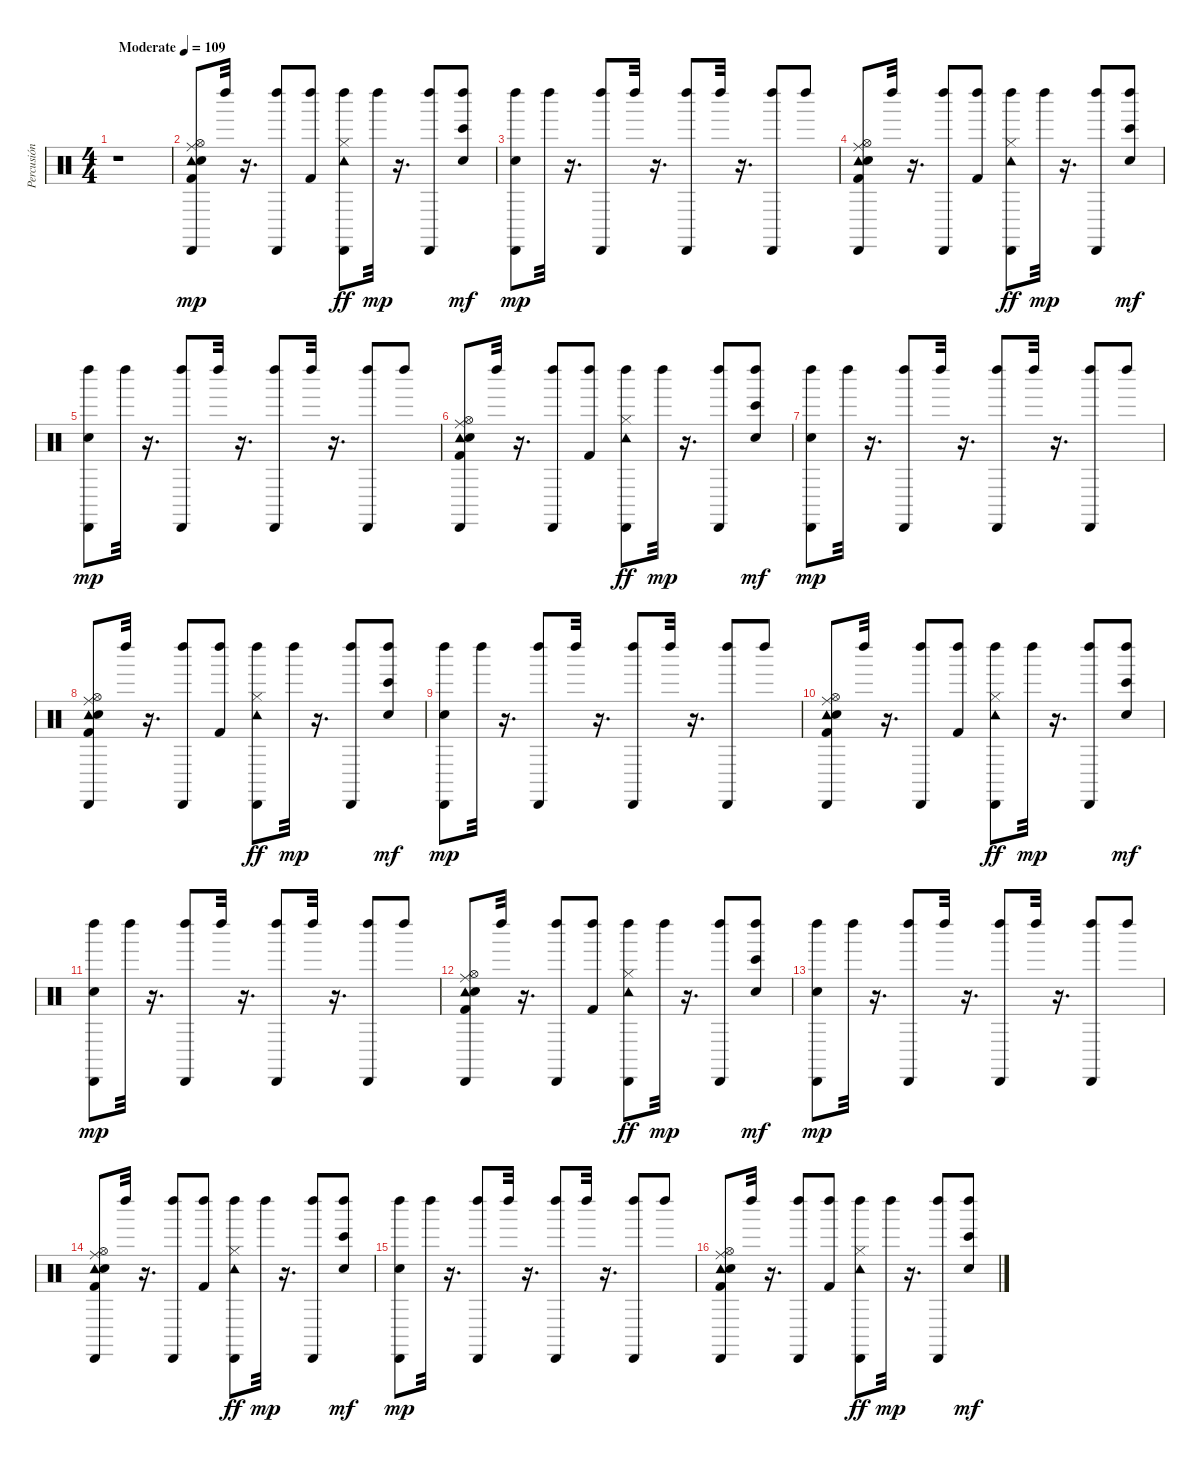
\track ("Percusión" "Percusión") {instrument percussion}
\staff {score}
\articulation defaults
\ts (4 4)
\tempo (109 "Moderate")
\clef neutral
\ks c
r.1{dy mp} |
("Ride (middle)" "Kick (hit) 2" "Hi-Hat (open)" "Tambourine (hit)" "Snare (hit)" "Cabasa (hit)").8 "Left Maraca (hit)".32 r.16{d} ("Cabasa (hit)" "Left Maraca (hit)").8 ("Kick (hit) 2" "Left Maraca (hit)").8 ("Left Maraca (hit)" "Cabasa (hit)" "Hi-Hat (closed)" "Tambourine (hit)").8{dy ff} "Left Maraca (hit)".32{dy mp} r.16{d} ("Cabasa (hit)" "Left Maraca (hit)").8 ("Left Maraca (hit)" "Snare (hit)" "Bongo High (hit)").8{dy mf} |
("Left Maraca (hit)" "Snare (hit)" "Cabasa (hit)").8{dy mp} "Left Maraca (hit)".32 r.16{d} ("Left Maraca (hit)" "Cabasa (hit)").8 "Left Maraca (hit)".32 r.16{d} ("Cabasa (hit)" "Left Maraca (hit)").8 "Left Maraca (hit)".32 r.16{d} ("Cabasa (hit)" "Left Maraca (hit)").8 "Left Maraca (hit)".8 |
("Ride (middle)" "Kick (hit) 2" "Hi-Hat (open)" "Tambourine (hit)" "Snare (hit)" "Cabasa (hit)").8 "Left Maraca (hit)".32 r.16{d} ("Cabasa (hit)" "Left Maraca (hit)").8 ("Kick (hit) 2" "Left Maraca (hit)").8 ("Left Maraca (hit)" "Cabasa (hit)" "Hi-Hat (closed)" "Tambourine (hit)").8{dy ff} "Left Maraca (hit)".32{dy mp} r.16{d} ("Cabasa (hit)" "Left Maraca (hit)").8 ("Left Maraca (hit)" "Snare (hit)" "Bongo High (hit)").8{dy mf} |
("Left Maraca (hit)" "Snare (hit)" "Cabasa (hit)").8{dy mp} "Left Maraca (hit)".32 r.16{d} ("Left Maraca (hit)" "Cabasa (hit)").8 "Left Maraca (hit)".32 r.16{d} ("Cabasa (hit)" "Left Maraca (hit)").8 "Left Maraca (hit)".32 r.16{d} ("Cabasa (hit)" "Left Maraca (hit)").8 "Left Maraca (hit)".8 |
("Ride (middle)" "Kick (hit) 2" "Hi-Hat (open)" "Tambourine (hit)" "Snare (hit)" "Cabasa (hit)").8 "Left Maraca (hit)".32 r.16{d} ("Cabasa (hit)" "Left Maraca (hit)").8 ("Kick (hit) 2" "Left Maraca (hit)").8 ("Left Maraca (hit)" "Cabasa (hit)" "Hi-Hat (closed)" "Tambourine (hit)").8{dy ff} "Left Maraca (hit)".32{dy mp} r.16{d} ("Cabasa (hit)" "Left Maraca (hit)").8 ("Left Maraca (hit)" "Snare (hit)" "Bongo High (hit)").8{dy mf} |
("Left Maraca (hit)" "Snare (hit)" "Cabasa (hit)").8{dy mp} "Left Maraca (hit)".32 r.16{d} ("Left Maraca (hit)" "Cabasa (hit)").8 "Left Maraca (hit)".32 r.16{d} ("Cabasa (hit)" "Left Maraca (hit)").8 "Left Maraca (hit)".32 r.16{d} ("Cabasa (hit)" "Left Maraca (hit)").8 "Left Maraca (hit)".8 |
("Ride (middle)" "Kick (hit) 2" "Hi-Hat (open)" "Tambourine (hit)" "Snare (hit)" "Cabasa (hit)").8 "Left Maraca (hit)".32 r.16{d} ("Cabasa (hit)" "Left Maraca (hit)").8 ("Kick (hit) 2" "Left Maraca (hit)").8 ("Left Maraca (hit)" "Cabasa (hit)" "Hi-Hat (closed)" "Tambourine (hit)").8{dy ff} "Left Maraca (hit)".32{dy mp} r.16{d} ("Cabasa (hit)" "Left Maraca (hit)").8 ("Left Maraca (hit)" "Snare (hit)" "Bongo High (hit)").8{dy mf} |
("Left Maraca (hit)" "Snare (hit)" "Cabasa (hit)").8{dy mp} "Left Maraca (hit)".32 r.16{d} ("Left Maraca (hit)" "Cabasa (hit)").8 "Left Maraca (hit)".32 r.16{d} ("Cabasa (hit)" "Left Maraca (hit)").8 "Left Maraca (hit)".32 r.16{d} ("Cabasa (hit)" "Left Maraca (hit)").8 "Left Maraca (hit)".8 |
("Ride (middle)" "Kick (hit) 2" "Hi-Hat (open)" "Tambourine (hit)" "Snare (hit)" "Cabasa (hit)").8 "Left Maraca (hit)".32 r.16{d} ("Cabasa (hit)" "Left Maraca (hit)").8 ("Kick (hit) 2" "Left Maraca (hit)").8 ("Left Maraca (hit)" "Cabasa (hit)" "Hi-Hat (closed)" "Tambourine (hit)").8{dy ff} "Left Maraca (hit)".32{dy mp} r.16{d} ("Cabasa (hit)" "Left Maraca (hit)").8 ("Left Maraca (hit)" "Snare (hit)" "Bongo High (hit)").8{dy mf} |
("Left Maraca (hit)" "Snare (hit)" "Cabasa (hit)").8{dy mp} "Left Maraca (hit)".32 r.16{d} ("Left Maraca (hit)" "Cabasa (hit)").8 "Left Maraca (hit)".32 r.16{d} ("Cabasa (hit)" "Left Maraca (hit)").8 "Left Maraca (hit)".32 r.16{d} ("Cabasa (hit)" "Left Maraca (hit)").8 "Left Maraca (hit)".8 |
("Ride (middle)" "Kick (hit) 2" "Hi-Hat (open)" "Tambourine (hit)" "Snare (hit)" "Cabasa (hit)").8 "Left Maraca (hit)".32 r.16{d} ("Cabasa (hit)" "Left Maraca (hit)").8 ("Kick (hit) 2" "Left Maraca (hit)").8 ("Left Maraca (hit)" "Cabasa (hit)" "Hi-Hat (closed)" "Tambourine (hit)").8{dy ff} "Left Maraca (hit)".32{dy mp} r.16{d} ("Cabasa (hit)" "Left Maraca (hit)").8 ("Left Maraca (hit)" "Snare (hit)" "Bongo High (hit)").8{dy mf} |
("Left Maraca (hit)" "Snare (hit)" "Cabasa (hit)").8{dy mp} "Left Maraca (hit)".32 r.16{d} ("Left Maraca (hit)" "Cabasa (hit)").8 "Left Maraca (hit)".32 r.16{d} ("Cabasa (hit)" "Left Maraca (hit)").8 "Left Maraca (hit)".32 r.16{d} ("Cabasa (hit)" "Left Maraca (hit)").8 "Left Maraca (hit)".8 |
("Ride (middle)" "Kick (hit) 2" "Hi-Hat (open)" "Tambourine (hit)" "Snare (hit)" "Cabasa (hit)").8 "Left Maraca (hit)".32 r.16{d} ("Cabasa (hit)" "Left Maraca (hit)").8 ("Kick (hit) 2" "Left Maraca (hit)").8 ("Left Maraca (hit)" "Cabasa (hit)" "Hi-Hat (closed)" "Tambourine (hit)").8{dy ff} "Left Maraca (hit)".32{dy mp} r.16{d} ("Cabasa (hit)" "Left Maraca (hit)").8 ("Left Maraca (hit)" "Snare (hit)" "Bongo High (hit)").8{dy mf} |
("Left Maraca (hit)" "Snare (hit)" "Cabasa (hit)").8{dy mp} "Left Maraca (hit)".32 r.16{d} ("Left Maraca (hit)" "Cabasa (hit)").8 "Left Maraca (hit)".32 r.16{d} ("Cabasa (hit)" "Left Maraca (hit)").8 "Left Maraca (hit)".32 r.16{d} ("Cabasa (hit)" "Left Maraca (hit)").8 "Left Maraca (hit)".8 |
("Ride (middle)" "Kick (hit) 2" "Hi-Hat (open)" "Tambourine (hit)" "Snare (hit)" "Cabasa (hit)").8 "Left Maraca (hit)".32 r.16{d} ("Cabasa (hit)" "Left Maraca (hit)").8 ("Kick (hit) 2" "Left Maraca (hit)").8 ("Left Maraca (hit)" "Cabasa (hit)" "Hi-Hat (closed)" "Tambourine (hit)").8{dy ff} "Left Maraca (hit)".32{dy mp} r.16{d} ("Cabasa (hit)" "Left Maraca (hit)").8 ("Left Maraca (hit)" "Snare (hit)" "Bongo High (hit)").8{dy mf}
